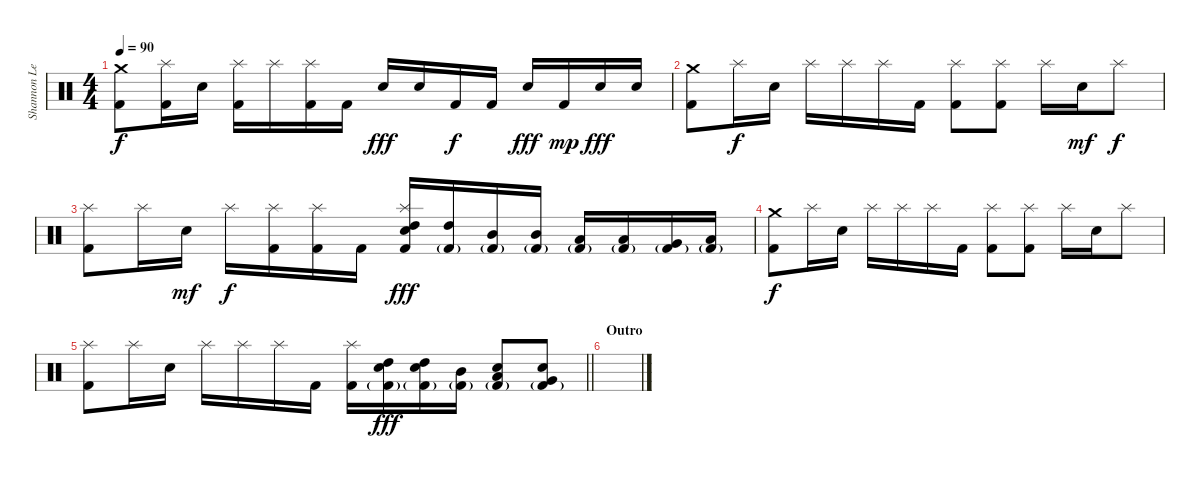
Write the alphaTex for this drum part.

\track ("Shannon Leto - Drums" "Shannon Le") {instrument percussion}
\staff {score}
\articulation defaults
\ts (4 4)
\tempo 90
\clef neutral
\ks c
("Crash medium (hit)" "Kick (hit) 2").8{dy f} ("Splash (hit)" "Kick (hit) 2").16 "Electric Snare (hit)".16 ("Splash (hit)" "Kick (hit) 2").16 "Splash (hit)".16 ("Splash (hit)" "Kick (hit) 2").16 "Kick (hit) 2".16 "Electric Snare (hit)".16{dy fff} "Electric Snare (hit)".16 "Kick (hit) 2".16{dy f} "Kick (hit) 2".16 "Electric Snare (hit)".16{dy fff} "Kick (hit) 2".16{dy mp} "Electric Snare (hit)".16{dy fff} "Electric Snare (hit)".16 |
("Crash medium (hit)" "Kick (hit) 2").8 "Splash (hit)".16{dy f} "Electric Snare (hit)".16 "Splash (hit)".16 "Splash (hit)".16 "Splash (hit)".16 "Kick (hit) 2".16 ("Splash (hit)" "Kick (hit) 2").8 ("Splash (hit)" "Kick (hit) 2").8 "Splash (hit)".16 "Electric Snare (hit)".16{dy mf} "Splash (hit)".8{dy f} |
("Splash (hit)" "Kick (hit) 2").8 "Splash (hit)".16 "Electric Snare (hit)".16{dy mf} "Splash (hit)".16{dy f} ("Splash (hit)" "Kick (hit) 2").16 ("Splash (hit)" "Kick (hit) 2").16 "Kick (hit) 2".16 ("Splash (hit)" "Electric Snare (hit)" "High Tom (hit)" "Kick (hit) 2").16{dy fff} ("High Tom (hit)" "Kick (hit) 2"{g}).16 ("Mid Tom (hit)" "Kick (hit) 2"{g}).16 ("Mid Tom (hit)" "Kick (hit) 2"{g}).16 ("Low Tom (hit)" "Kick (hit) 2"{g}).16 ("Low Tom (hit)" "Kick (hit) 2"{g}).16 ("Very Low Tom (hit)" "Kick (hit) 2"{g}).16 ("Low Floor Tom (hit)" "Kick (hit) 2"{g}).16 |
("Crash medium (hit)" "Kick (hit) 2").8{dy f} "Splash (hit)".16 "Electric Snare (hit)".16 "Splash (hit)".16 "Splash (hit)".16 "Splash (hit)".16 "Kick (hit) 2".16 ("Splash (hit)" "Kick (hit) 2").8 ("Splash (hit)" "Kick (hit) 2").8 "Splash (hit)".16 "Electric Snare (hit)".16 "Splash (hit)".8 |
\barLineRight lightlight
("Splash (hit)" "Kick (hit) 2").8 "Splash (hit)".16 "Electric Snare (hit)".16 "Splash (hit)".16 "Splash (hit)".16 "Splash (hit)".16 "Kick (hit) 2".16 ("Splash (hit)" "Kick (hit) 2").16 ("Electric Snare (hit)" "High Tom (hit)" "Kick (hit) 2"{g}).16{dy fff} ("Electric Snare (hit)" "High Tom (hit)" "Kick (hit) 2"{g}).16 ("Mid Tom (hit)" "Kick (hit) 2"{g}).16 ("Electric Snare (hit)" "Low Tom (hit)" "Kick (hit) 2"{g}).8 ("Electric Snare (hit)" "Very Low Tom (hit)" "Kick (hit) 2"{g}).8 |
\section ("" "Outro")
